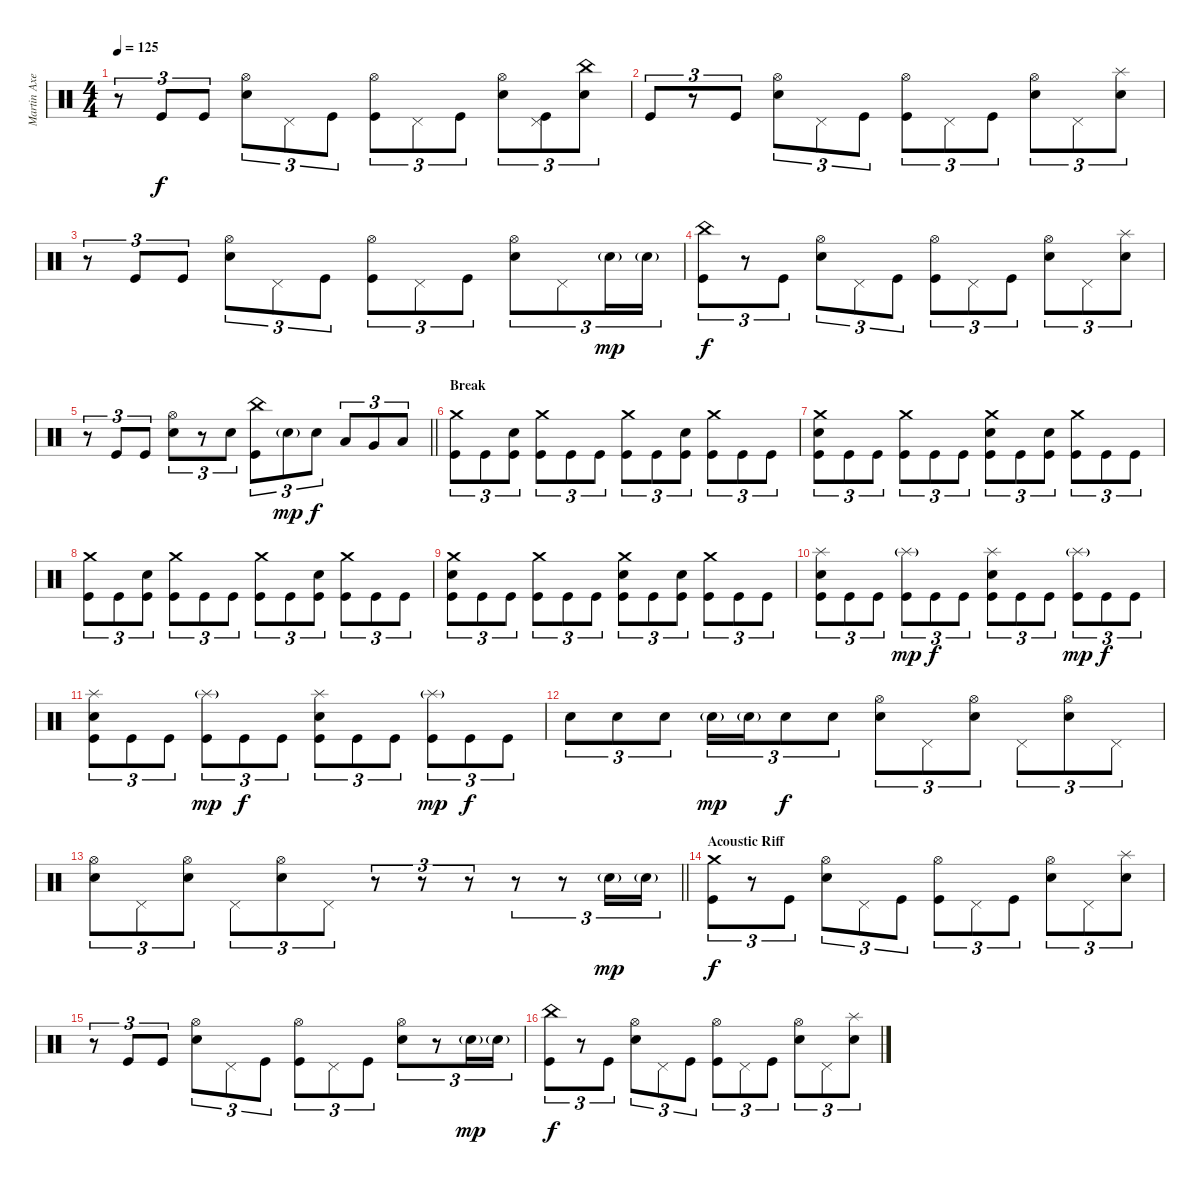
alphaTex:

\track ("Martin Axenrot" "Martin Axe") {instrument percussion}
\staff {score}
\articulation defaults
\ts (4 4)
\tempo 125
\clef neutral
\ks c
r.8{tu (3 2) dy f} "Kick (hit)".8{tu (3 2)} "Kick (hit)".8{tu (3 2)} ("Hi-Hat (open)" "Snare (hit) 2").8{tu (3 2)} "Pedal Hi-Hat (hit)".8{tu (3 2)} "Kick (hit)".8{tu (3 2)} ("Hi-Hat (open)" "Kick (hit)").8{tu (3 2)} "Pedal Hi-Hat (hit)".8{tu (3 2)} "Kick (hit)".8{tu (3 2)} ("Hi-Hat (open)" "Snare (hit) 2").8{tu (3 2)} ("Pedal Hi-Hat (hit)" "Kick (hit)").8{tu (3 2)} ("China (hit)" "Snare (hit) 2").8{tu (3 2)} |
"Kick (hit)".8{tu (3 2)} r.8{tu (3 2)} "Kick (hit)".8{tu (3 2)} ("Hi-Hat (open)" "Snare (hit) 2").8{tu (3 2)} "Pedal Hi-Hat (hit)".8{tu (3 2)} "Kick (hit)".8{tu (3 2)} ("Hi-Hat (open)" "Kick (hit)").8{tu (3 2)} "Pedal Hi-Hat (hit)".8{tu (3 2)} "Kick (hit)".8{tu (3 2)} ("Hi-Hat (open)" "Snare (hit) 2").8{tu (3 2)} "Pedal Hi-Hat (hit)".8{tu (3 2)} ("Splash (hit)" "Snare (hit) 2").8{tu (3 2)} |
r.8{tu (3 2)} "Kick (hit)".8{tu (3 2)} "Kick (hit)".8{tu (3 2)} ("Hi-Hat (open)" "Snare (hit) 2").8{tu (3 2)} "Pedal Hi-Hat (hit)".8{tu (3 2)} "Kick (hit)".8{tu (3 2)} ("Hi-Hat (open)" "Kick (hit)").8{tu (3 2)} "Pedal Hi-Hat (hit)".8{tu (3 2)} "Kick (hit)".8{tu (3 2)} ("Hi-Hat (open)" "Snare (hit) 2").8{tu (3 2)} "Pedal Hi-Hat (hit)".8{tu (3 2)} "Snare (hit) 2"{g}.16{tu (3 2) dy mp} "Snare (hit) 2"{g}.16{tu (3 2)} |
("China (hit)" "Kick (hit)").8{tu (3 2) dy f} r.8{tu (3 2)} "Kick (hit)".8{tu (3 2)} ("Hi-Hat (open)" "Snare (hit) 2").8{tu (3 2)} "Pedal Hi-Hat (hit)".8{tu (3 2)} "Kick (hit)".8{tu (3 2)} ("Hi-Hat (open)" "Kick (hit)").8{tu (3 2)} "Pedal Hi-Hat (hit)".8{tu (3 2)} "Kick (hit)".8{tu (3 2)} ("Hi-Hat (open)" "Snare (hit) 2").8{tu (3 2)} "Pedal Hi-Hat (hit)".8{tu (3 2)} ("Splash (hit)" "Snare (hit) 2").8{tu (3 2)} |
\barLineRight lightlight
r.8{tu (3 2)} "Kick (hit)".8{tu (3 2)} "Kick (hit)".8{tu (3 2)} ("Hi-Hat (open)" "Snare (hit) 2").8{tu (3 2)} r.8{tu (3 2)} "Snare (hit) 2".8{tu (3 2)} ("China (hit)" "Kick (hit)").8{tu (3 2)} "Snare (hit) 2"{g}.8{tu (3 2) dy mp} "Snare (hit) 2".8{tu (3 2) dy f} "Low Tom (hit)".8{tu (3 2)} "Very Low Tom (hit)".8{tu (3 2)} "Low Floor Tom (hit)".8{tu (3 2)} |
\section ("" "Break")
("Crash medium (hit)" "Kick (hit)").8{tu (3 2)} "Kick (hit)".8{tu (3 2)} ("Snare (hit) 2" "Kick (hit)").8{tu (3 2)} ("Crash medium (hit)" "Kick (hit)").8{tu (3 2)} "Kick (hit)".8{tu (3 2)} "Kick (hit)".8{tu (3 2)} ("Crash medium (hit)" "Kick (hit)").8{tu (3 2)} "Kick (hit)".8{tu (3 2)} ("Snare (hit) 2" "Kick (hit)").8{tu (3 2)} ("Crash medium (hit)" "Kick (hit)").8{tu (3 2)} "Kick (hit)".8{tu (3 2)} "Kick (hit)".8{tu (3 2)} |
("Crash medium (hit)" "Snare (hit) 2" "Kick (hit)").8{tu (3 2)} "Kick (hit)".8{tu (3 2)} "Kick (hit)".8{tu (3 2)} ("Crash medium (hit)" "Kick (hit)").8{tu (3 2)} "Kick (hit)".8{tu (3 2)} "Kick (hit)".8{tu (3 2)} ("Crash medium (hit)" "Snare (hit) 2" "Kick (hit)").8{tu (3 2)} "Kick (hit)".8{tu (3 2)} ("Snare (hit) 2" "Kick (hit)").8{tu (3 2)} ("Crash medium (hit)" "Kick (hit)").8{tu (3 2)} "Kick (hit)".8{tu (3 2)} "Kick (hit)".8{tu (3 2)} |
("Crash medium (hit)" "Kick (hit)").8{tu (3 2)} "Kick (hit)".8{tu (3 2)} ("Snare (hit) 2" "Kick (hit)").8{tu (3 2)} ("Crash medium (hit)" "Kick (hit)").8{tu (3 2)} "Kick (hit)".8{tu (3 2)} "Kick (hit)".8{tu (3 2)} ("Crash medium (hit)" "Kick (hit)").8{tu (3 2)} "Kick (hit)".8{tu (3 2)} ("Snare (hit) 2" "Kick (hit)").8{tu (3 2)} ("Crash medium (hit)" "Kick (hit)").8{tu (3 2)} "Kick (hit)".8{tu (3 2)} "Kick (hit)".8{tu (3 2)} |
("Crash medium (hit)" "Snare (hit) 2" "Kick (hit)").8{tu (3 2)} "Kick (hit)".8{tu (3 2)} "Kick (hit)".8{tu (3 2)} ("Crash medium (hit)" "Kick (hit)").8{tu (3 2)} "Kick (hit)".8{tu (3 2)} "Kick (hit)".8{tu (3 2)} ("Crash medium (hit)" "Snare (hit) 2" "Kick (hit)").8{tu (3 2)} "Kick (hit)".8{tu (3 2)} ("Snare (hit) 2" "Kick (hit)").8{tu (3 2)} ("Crash medium (hit)" "Kick (hit)").8{tu (3 2)} "Kick (hit)".8{tu (3 2)} "Kick (hit)".8{tu (3 2)} |
("Splash (hit)" "Snare (hit) 2" "Kick (hit)").8{tu (3 2)} "Kick (hit)".8{tu (3 2)} "Kick (hit)".8{tu (3 2)} ("Splash (hit)"{g} "Kick (hit)").8{tu (3 2) dy mp} "Kick (hit)".8{tu (3 2) dy f} "Kick (hit)".8{tu (3 2)} ("Splash (hit)" "Snare (hit) 2" "Kick (hit)").8{tu (3 2)} "Kick (hit)".8{tu (3 2)} "Kick (hit)".8{tu (3 2)} ("Splash (hit)"{g} "Kick (hit)").8{tu (3 2) dy mp} "Kick (hit)".8{tu (3 2) dy f} "Kick (hit)".8{tu (3 2)} |
("Splash (hit)" "Snare (hit) 2" "Kick (hit)").8{tu (3 2)} "Kick (hit)".8{tu (3 2)} "Kick (hit)".8{tu (3 2)} ("Splash (hit)"{g} "Kick (hit)").8{tu (3 2) dy mp} "Kick (hit)".8{tu (3 2) dy f} "Kick (hit)".8{tu (3 2)} ("Splash (hit)" "Snare (hit) 2" "Kick (hit)").8{tu (3 2)} "Kick (hit)".8{tu (3 2)} "Kick (hit)".8{tu (3 2)} ("Splash (hit)"{g} "Kick (hit)").8{tu (3 2) dy mp} "Kick (hit)".8{tu (3 2) dy f} "Kick (hit)".8{tu (3 2)} |
"Snare (hit) 2".8{tu (3 2)} "Snare (hit) 2".8{tu (3 2)} "Snare (hit) 2".8{tu (3 2)} "Snare (hit) 2"{g}.16{tu (3 2) dy mp} "Snare (hit) 2"{g}.16{tu (3 2)} "Snare (hit) 2".8{tu (3 2) dy f} "Snare (hit) 2".8{tu (3 2)} ("Hi-Hat (open)" "Snare (hit) 2").8{tu (3 2)} "Pedal Hi-Hat (hit)".8{tu (3 2)} ("Hi-Hat (open)" "Snare (hit) 2").8{tu (3 2)} "Pedal Hi-Hat (hit)".8{tu (3 2)} ("Hi-Hat (open)" "Snare (hit) 2").8{tu (3 2)} "Pedal Hi-Hat (hit)".8{tu (3 2)} |
\barLineRight lightlight
("Hi-Hat (open)" "Snare (hit) 2").8{tu (3 2)} "Pedal Hi-Hat (hit)".8{tu (3 2)} ("Hi-Hat (open)" "Snare (hit) 2").8{tu (3 2)} "Pedal Hi-Hat (hit)".8{tu (3 2)} ("Hi-Hat (open)" "Snare (hit) 2").8{tu (3 2)} "Pedal Hi-Hat (hit)".8{tu (3 2)} r.8{tu (3 2)} r.8{tu (3 2)} r.8{tu (3 2)} r.8{tu (3 2)} r.8{tu (3 2)} "Snare (hit) 2"{g}.16{tu (3 2) dy mp} "Snare (hit) 2"{g}.16{tu (3 2)} |
\section ("" "Acoustic Riff")
("Crash medium (hit)" "Kick (hit)").8{tu (3 2) dy f} r.8{tu (3 2)} "Kick (hit)".8{tu (3 2)} ("Hi-Hat (open)" "Snare (hit) 2").8{tu (3 2)} "Pedal Hi-Hat (hit)".8{tu (3 2)} "Kick (hit)".8{tu (3 2)} ("Hi-Hat (open)" "Kick (hit)").8{tu (3 2)} "Pedal Hi-Hat (hit)".8{tu (3 2)} "Kick (hit)".8{tu (3 2)} ("Hi-Hat (open)" "Snare (hit) 2").8{tu (3 2)} "Pedal Hi-Hat (hit)".8{tu (3 2)} ("Splash (hit)" "Snare (hit) 2").8{tu (3 2)} |
r.8{tu (3 2)} "Kick (hit)".8{tu (3 2)} "Kick (hit)".8{tu (3 2)} ("Hi-Hat (open)" "Snare (hit) 2").8{tu (3 2)} "Pedal Hi-Hat (hit)".8{tu (3 2)} "Kick (hit)".8{tu (3 2)} ("Hi-Hat (open)" "Kick (hit)").8{tu (3 2)} "Pedal Hi-Hat (hit)".8{tu (3 2)} "Kick (hit)".8{tu (3 2)} ("Hi-Hat (open)" "Snare (hit) 2").8{tu (3 2)} r.8{tu (3 2)} "Snare (hit) 2"{g}.16{tu (3 2) dy mp} "Snare (hit) 2"{g}.16{tu (3 2)} |
("China (hit)" "Kick (hit)").8{tu (3 2) dy f} r.8{tu (3 2)} "Kick (hit)".8{tu (3 2)} ("Hi-Hat (open)" "Snare (hit) 2").8{tu (3 2)} "Pedal Hi-Hat (hit)".8{tu (3 2)} "Kick (hit)".8{tu (3 2)} ("Hi-Hat (open)" "Kick (hit)").8{tu (3 2)} "Pedal Hi-Hat (hit)".8{tu (3 2)} "Kick (hit)".8{tu (3 2)} ("Hi-Hat (open)" "Snare (hit) 2").8{tu (3 2)} "Pedal Hi-Hat (hit)".8{tu (3 2)} ("Splash (hit)" "Snare (hit) 2").8{tu (3 2)}
